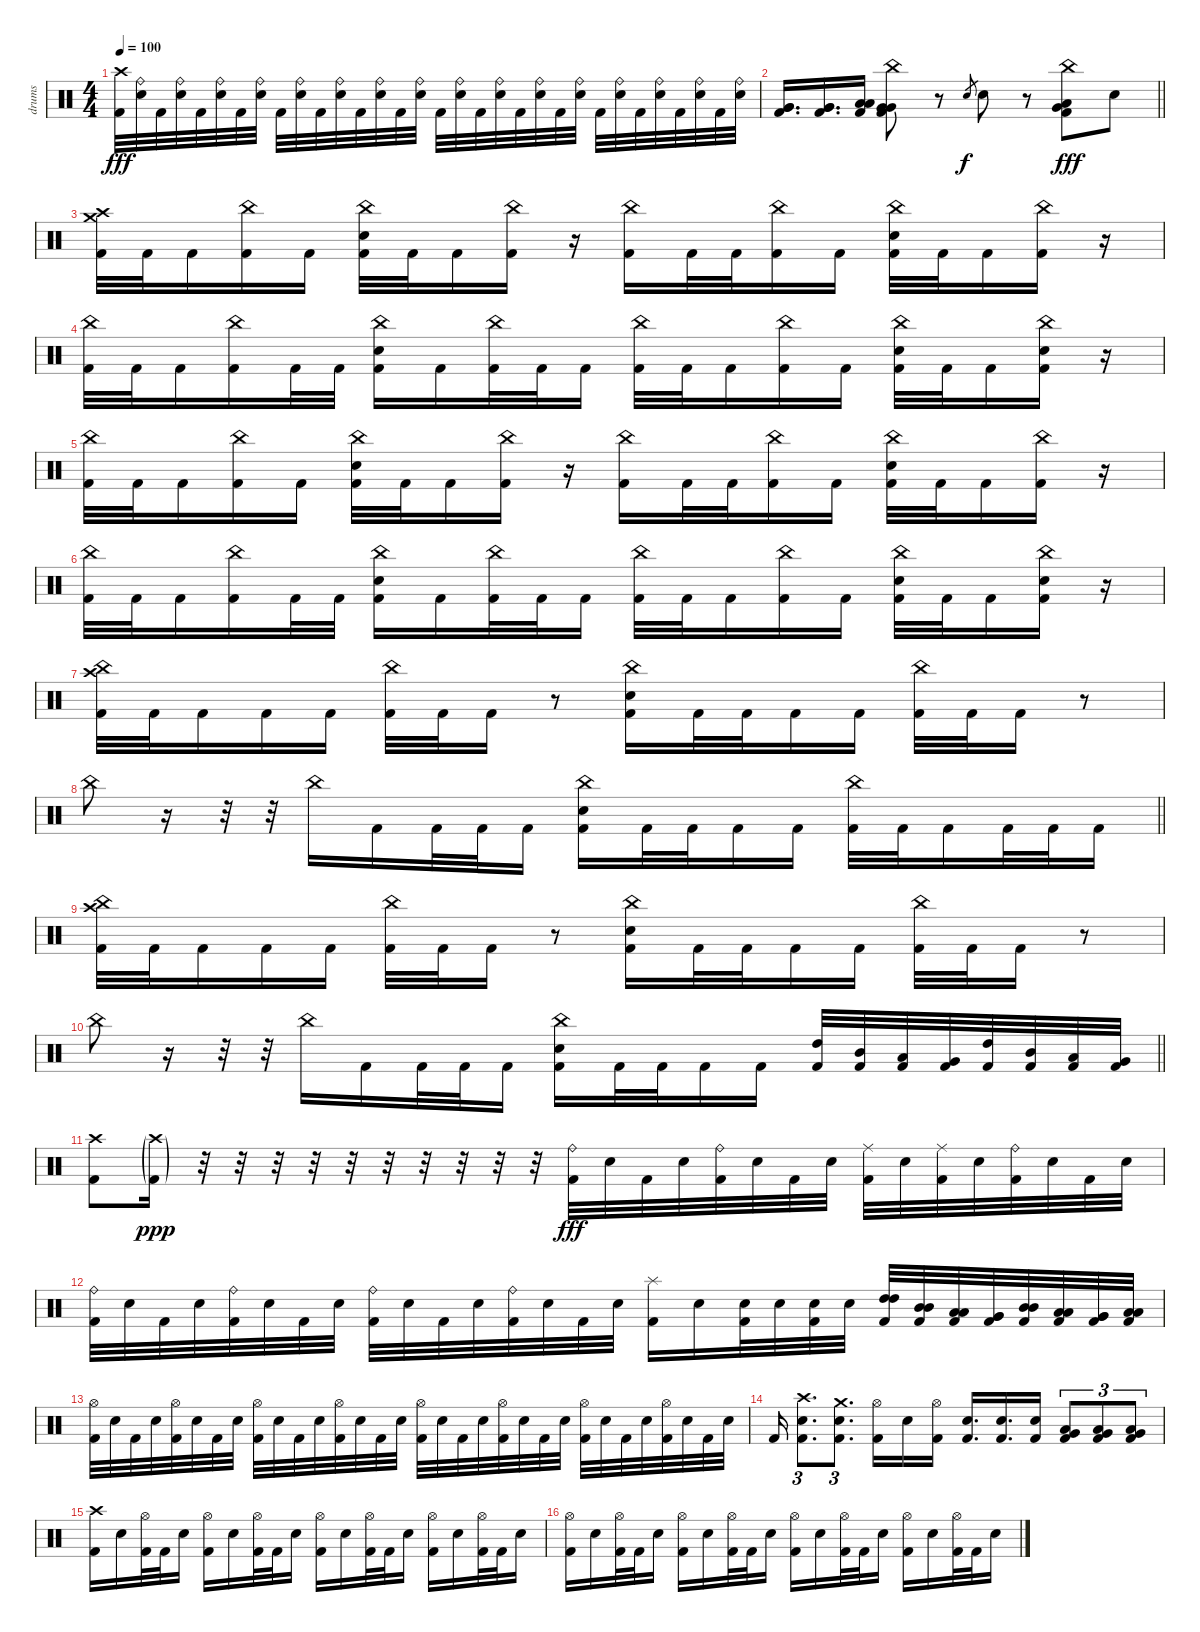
\track ("drums" "drums") {instrument percussion}
\staff {score}
\articulation defaults
\ts (4 4)
\tempo 100
\clef neutral
\ks c
("Crash high (hit)" "Kick (hit) 2").32{dy fff} ("Ride (bell)" "Electric Snare (hit)").32 "Kick (hit) 2".32 ("Ride (bell)" "Electric Snare (hit)").32 "Kick (hit) 2".32 ("Ride (bell)" "Electric Snare (hit)").32 "Kick (hit) 2".32 ("Ride (bell)" "Electric Snare (hit)").32 "Kick (hit) 2".32 ("Ride (bell)" "Electric Snare (hit)").32 "Kick (hit) 2".32 ("Ride (bell)" "Electric Snare (hit)").32 "Kick (hit) 2".32 ("Ride (bell)" "Electric Snare (hit)").32 "Kick (hit) 2".32 ("Ride (bell)" "Electric Snare (hit)").32 "Kick (hit) 2".32 ("Ride (bell)" "Electric Snare (hit)").32 "Kick (hit) 2".32 ("Ride (bell)" "Electric Snare (hit)").32 "Kick (hit) 2".32 ("Ride (bell)" "Electric Snare (hit)").32 "Kick (hit) 2".32 ("Ride (bell)" "Electric Snare (hit)").32 "Kick (hit) 2".32 ("Ride (bell)" "Electric Snare (hit)").32 "Kick (hit) 2".32 ("Ride (bell)" "Electric Snare (hit)").32 "Kick (hit) 2".32 ("Ride (bell)" "Electric Snare (hit)").32 "Kick (hit) 2".32 ("Ride (bell)" "Electric Snare (hit)").32 |
\barLineRight lightlight
("Very Low Tom (hit)" "Very Low Tom (hit)" "Kick (hit) 2").16{d} ("Very Low Tom (hit)" "Very Low Tom (hit)" "Kick (hit) 2").16{d} ("Low Floor Tom (hit)" "Low Floor Tom (hit)" "Kick (hit) 2").16 ("China (hit)" "Very Low Tom (hit)" "Very Low Tom (hit)" "Kick (hit) 2").8 r.8 "Electric Snare (hit)".8{gr dy f} "Electric Snare (hit)".8 r.8 ("China (hit)" "Very Low Tom (hit)" "Low Floor Tom (hit)" "Kick (hit) 2").8{dy fff} "Electric Snare (hit)".8 |
\section ("" "")
("Crash high (hit)" "Crash medium (hit)" "Kick (hit) 2").32 "Kick (hit) 2".32 "Kick (hit) 2".16 ("China (hit)" "Kick (hit) 2").16 "Kick (hit) 2".16 ("China (hit)" "Electric Snare (hit)" "Kick (hit) 2").32 "Kick (hit) 2".32 "Kick (hit) 2".16 ("China (hit)" "Kick (hit) 2").16 r.16 ("China (hit)" "Kick (hit) 2").16 "Kick (hit) 2".32 "Kick (hit) 2".32 ("China (hit)" "Kick (hit) 2").16 "Kick (hit) 2".16 ("China (hit)" "Electric Snare (hit)" "Kick (hit) 2").32 "Kick (hit) 2".32 "Kick (hit) 2".16 ("China (hit)" "Kick (hit) 2").16 r.16 |
("China (hit)" "Kick (hit) 2").32 "Kick (hit) 2".32 "Kick (hit) 2".16 ("China (hit)" "Kick (hit) 2").16 "Kick (hit) 2".32 "Kick (hit) 2".32 ("China (hit)" "Electric Snare (hit)" "Kick (hit) 2").16 "Kick (hit) 2".16 ("China (hit)" "Kick (hit) 2").32 "Kick (hit) 2".32 "Kick (hit) 2".16 ("China (hit)" "Kick (hit) 2").32 "Kick (hit) 2".32 "Kick (hit) 2".16 ("China (hit)" "Kick (hit) 2").16 "Kick (hit) 2".16 ("China (hit)" "Electric Snare (hit)" "Kick (hit) 2").32 "Kick (hit) 2".32 "Kick (hit) 2".16 ("China (hit)" "Electric Snare (hit)" "Kick (hit) 2").16 r.16 |
("China (hit)" "Kick (hit) 2").32 "Kick (hit) 2".32 "Kick (hit) 2".16 ("China (hit)" "Kick (hit) 2").16 "Kick (hit) 2".16 ("China (hit)" "Electric Snare (hit)" "Kick (hit) 2").32 "Kick (hit) 2".32 "Kick (hit) 2".16 ("China (hit)" "Kick (hit) 2").16 r.16 ("China (hit)" "Kick (hit) 2").16 "Kick (hit) 2".32 "Kick (hit) 2".32 ("China (hit)" "Kick (hit) 2").16 "Kick (hit) 2".16 ("China (hit)" "Electric Snare (hit)" "Kick (hit) 2").32 "Kick (hit) 2".32 "Kick (hit) 2".16 ("China (hit)" "Kick (hit) 2").16 r.16 |
("China (hit)" "Kick (hit) 2").32 "Kick (hit) 2".32 "Kick (hit) 2".16 ("China (hit)" "Kick (hit) 2").16 "Kick (hit) 2".32 "Kick (hit) 2".32 ("China (hit)" "Electric Snare (hit)" "Kick (hit) 2").16 "Kick (hit) 2".16 ("China (hit)" "Kick (hit) 2").32 "Kick (hit) 2".32 "Kick (hit) 2".16 ("China (hit)" "Kick (hit) 2").32 "Kick (hit) 2".32 "Kick (hit) 2".16 ("China (hit)" "Kick (hit) 2").16 "Kick (hit) 2".16 ("China (hit)" "Electric Snare (hit)" "Kick (hit) 2").32 "Kick (hit) 2".32 "Kick (hit) 2".16 ("China (hit)" "Electric Snare (hit)" "Kick (hit) 2").16 r.16 |
("China (hit)" "Crash high (hit)" "Kick (hit) 2").32 "Kick (hit) 2".32 "Kick (hit) 2".16 "Kick (hit) 2".16 "Kick (hit) 2".16 ("China (hit)" "Kick (hit) 2").32 "Kick (hit) 2".32 "Kick (hit) 2".16 r.8 ("China (hit)" "Electric Snare (hit)" "Kick (hit) 2").16 "Kick (hit) 2".32 "Kick (hit) 2".32 "Kick (hit) 2".16 "Kick (hit) 2".16 ("China (hit)" "Kick (hit) 2").32 "Kick (hit) 2".32 "Kick (hit) 2".16 r.8 |
\barLineRight lightlight "China (hit)".8
r.16 r.32 r.32 "China (hit)".16 "Kick (hit) 2".16 "Kick (hit) 2".32 "Kick (hit) 2".32 "Kick (hit) 2".16 ("China (hit)" "Electric Snare (hit)" "Kick (hit) 2").16 "Kick (hit) 2".32 "Kick (hit) 2".32 "Kick (hit) 2".16 "Kick (hit) 2".16 ("China (hit)" "Kick (hit) 2").32 "Kick (hit) 2".32 "Kick (hit) 2".16 "Kick (hit) 2".32 "Kick (hit) 2".32 "Kick (hit) 2".16 |
("China (hit)" "Crash high (hit)" "Kick (hit) 2").32 "Kick (hit) 2".32 "Kick (hit) 2".16 "Kick (hit) 2".16 "Kick (hit) 2".16 ("China (hit)" "Kick (hit) 2").32 "Kick (hit) 2".32 "Kick (hit) 2".16 r.8 ("China (hit)" "Electric Snare (hit)" "Kick (hit) 2").16 "Kick (hit) 2".32 "Kick (hit) 2".32 "Kick (hit) 2".16 "Kick (hit) 2".16 ("China (hit)" "Kick (hit) 2").32 "Kick (hit) 2".32 "Kick (hit) 2".16 r.8 |
\barLineRight lightlight "China (hit)".8
r.16 r.32 r.32 "China (hit)".16 "Kick (hit) 2".16 "Kick (hit) 2".32 "Kick (hit) 2".32 "Kick (hit) 2".16 ("China (hit)" "Electric Snare (hit)" "Kick (hit) 2").16 "Kick (hit) 2".32 "Kick (hit) 2".32 "Kick (hit) 2".16 "Kick (hit) 2".16 ("High Tom (hit)" "Kick (hit) 2").32 ("Mid Tom (hit)" "Kick (hit) 2").32 ("Low Tom (hit)" "Kick (hit) 2").32 ("Very Low Tom (hit)" "Kick (hit) 2").32 ("High Tom (hit)" "Kick (hit) 2").32 ("Mid Tom (hit)" "Kick (hit) 2").32 ("Low Tom (hit)" "Kick (hit) 2").32 ("Very Low Tom (hit)" "Kick (hit) 2").32 |
\section ("" "")
("Crash high (hit)" "Kick (hit) 2").8 ("Crash high (hit)"{g} "Kick (hit) 2"{g}).16{dy ppp} r.32 r.32 r.32 r.32 r.32 r.32 r.32 r.32 r.32 r.32 ("Ride (bell)" "Kick (hit) 2").32{dy fff} "Electric Snare (hit)".32 "Kick (hit) 2".32 "Electric Snare (hit)".32 ("Ride (bell)" "Kick (hit) 2").32 "Electric Snare (hit)".32 "Kick (hit) 2".32 "Electric Snare (hit)".32 ("Ride (middle)" "Kick (hit) 2").32 "Electric Snare (hit)".32 ("Ride (middle)" "Kick (hit) 2").32 "Electric Snare (hit)".32 ("Ride (bell)" "Kick (hit) 2").32 "Electric Snare (hit)".32 "Kick (hit) 2".32 "Electric Snare (hit)".32 |
("Ride (bell)" "Kick (hit) 2").32 "Electric Snare (hit)".32 "Kick (hit) 2".32 "Electric Snare (hit)".32 ("Ride (bell)" "Kick (hit) 2").32 "Electric Snare (hit)".32 "Kick (hit) 2".32 "Electric Snare (hit)".32 ("Ride (bell)" "Kick (hit) 2").32 "Electric Snare (hit)".32 "Kick (hit) 2".32 "Electric Snare (hit)".32 ("Ride (bell)" "Kick (hit) 2").32 "Electric Snare (hit)".32 "Kick (hit) 2".32 "Electric Snare (hit)".32 ("Splash (hit)" "Kick (hit) 2").16 "Electric Snare (hit)".16 ("Electric Snare (hit)" "Kick (hit) 2").32 "Electric Snare (hit)".32 ("Electric Snare (hit)" "Kick (hit) 2").32 "Electric Snare (hit)".32 ("High Tom (hit)" "High Tom (hit)" "Kick (hit) 2").32 ("Mid Tom (hit)" "Mid Tom (hit)" "Kick (hit) 2").32 ("Low Tom (hit)" "Low Tom (hit)" "Kick (hit) 2").32 ("Very Low Tom (hit)" "Very Low Tom (hit)" "Kick (hit) 2").32 ("Mid Tom (hit)" "Mid Tom (hit)" "Kick (hit) 2").32 ("Low Tom (hit)" "Low Tom (hit)" "Kick (hit) 2").32 ("Very Low Tom (hit)" "Very Low Tom (hit)" "Kick (hit) 2").32 ("Low Floor Tom (hit)" "Low Floor Tom (hit)" "Kick (hit) 2").32 |
("Hi-Hat (open)" "Kick (hit) 2").32 "Electric Snare (hit)".32 "Kick (hit) 2".32 "Electric Snare (hit)".32 ("Hi-Hat (open)" "Kick (hit) 2").32 "Electric Snare (hit)".32 "Kick (hit) 2".32 "Electric Snare (hit)".32 ("Hi-Hat (open)" "Kick (hit) 2").32 "Electric Snare (hit)".32 "Kick (hit) 2".32 "Electric Snare (hit)".32 ("Hi-Hat (open)" "Kick (hit) 2").32 "Electric Snare (hit)".32 "Kick (hit) 2".32 "Electric Snare (hit)".32 ("Hi-Hat (open)" "Kick (hit) 2").32 "Electric Snare (hit)".32 "Kick (hit) 2".32 "Electric Snare (hit)".32 ("Hi-Hat (open)" "Kick (hit) 2").32 "Electric Snare (hit)".32 "Kick (hit) 2".32 "Electric Snare (hit)".32 ("Hi-Hat (open)" "Kick (hit) 2").32 "Electric Snare (hit)".32 "Kick (hit) 2".32 "Electric Snare (hit)".32 ("Hi-Hat (open)" "Kick (hit) 2").32 "Electric Snare (hit)".32 "Kick (hit) 2".32 "Electric Snare (hit)".32 |
"Kick (hit) 2".16 ("Crash high (hit)" "Electric Snare (hit)" "Kick (hit) 2").8{d tu (3 2)} ("Crash medium (hit)" "Electric Snare (hit)" "Kick (hit) 2").8{d tu (3 2)} ("Hi-Hat (open)" "Kick (hit) 2").16 "Electric Snare (hit)".16 ("Hi-Hat (open)" "Kick (hit) 2").16 ("Electric Snare (hit)" "Kick (hit) 2").16{d} ("Electric Snare (hit)" "Kick (hit) 2").16{d} ("Electric Snare (hit)" "Kick (hit) 2").16 ("Very Low Tom (hit)" "Low Floor Tom (hit)" "Kick (hit) 2").8{tu (3 2)} ("Very Low Tom (hit)" "Low Floor Tom (hit)" "Kick (hit) 2").8{tu (3 2)} ("Very Low Tom (hit)" "Low Floor Tom (hit)" "Kick (hit) 2").8{tu (3 2)} |
("Crash high (hit)" "Kick (hit) 2").16 "Electric Snare (hit)".16 ("Hi-Hat (open)" "Kick (hit) 2").32 "Kick (hit) 2".32 "Electric Snare (hit)".16 ("Hi-Hat (open)" "Kick (hit) 2").16 "Electric Snare (hit)".16 ("Hi-Hat (open)" "Kick (hit) 2").32 "Kick (hit) 2".32 "Electric Snare (hit)".16 ("Hi-Hat (open)" "Kick (hit) 2").16 "Electric Snare (hit)".16 ("Hi-Hat (open)" "Kick (hit) 2").32 "Kick (hit) 2".32 "Electric Snare (hit)".16 ("Hi-Hat (open)" "Kick (hit) 2").16 "Electric Snare (hit)".16 ("Hi-Hat (open)" "Kick (hit) 2").32 "Kick (hit) 2".32 "Electric Snare (hit)".16 |
("Hi-Hat (open)" "Kick (hit) 2").16 "Electric Snare (hit)".16 ("Hi-Hat (open)" "Kick (hit) 2").32 "Kick (hit) 2".32 "Electric Snare (hit)".16 ("Hi-Hat (open)" "Kick (hit) 2").16 "Electric Snare (hit)".16 ("Hi-Hat (open)" "Kick (hit) 2").32 "Kick (hit) 2".32 "Electric Snare (hit)".16 ("Hi-Hat (open)" "Kick (hit) 2").16 "Electric Snare (hit)".16 ("Hi-Hat (open)" "Kick (hit) 2").32 "Kick (hit) 2".32 "Electric Snare (hit)".16 ("Hi-Hat (open)" "Kick (hit) 2").16 "Electric Snare (hit)".16 ("Hi-Hat (open)" "Kick (hit) 2").32 "Kick (hit) 2".32 "Electric Snare (hit)".16
